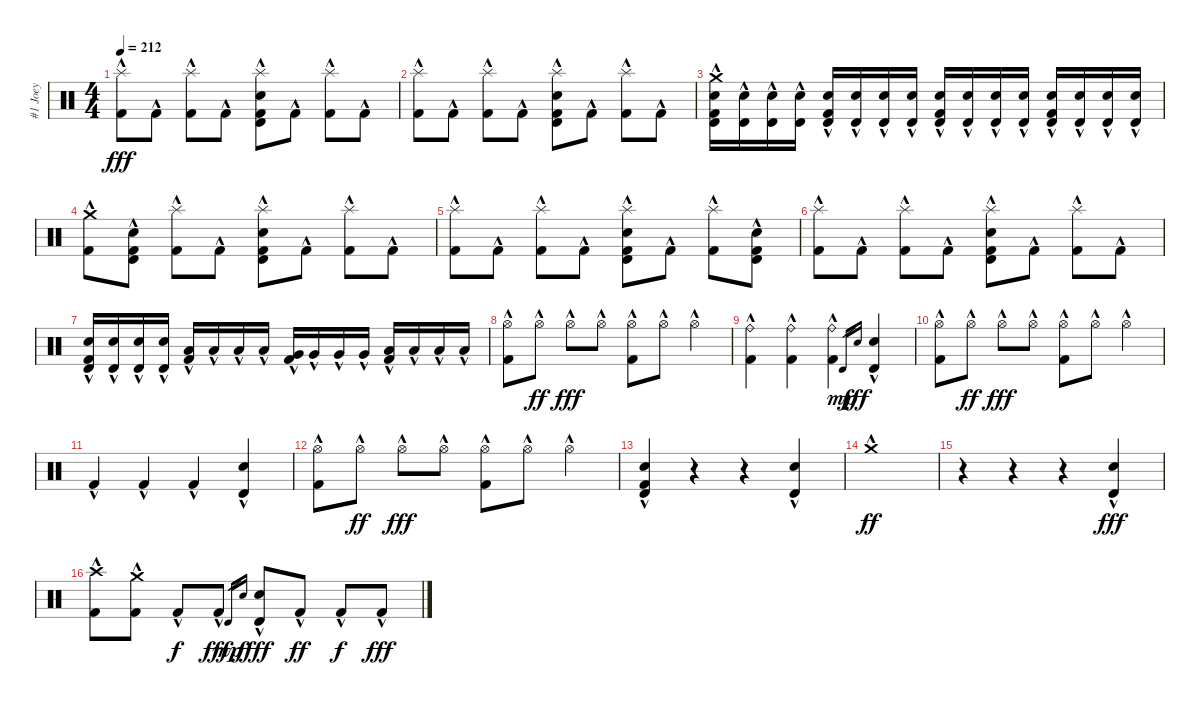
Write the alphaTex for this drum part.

\track ("#1 Joey" "#1 Joey") {instrument percussion}
\staff {score}
\articulation defaults
\ts (4 4)
\tempo 212
\clef neutral
\ks c
("Splash (hit)"{hac} "Kick (hit) 2"{hac}).8{dy fff} "Kick (hit) 2"{hac}.8 ("Splash (hit)"{hac} "Kick (hit) 2"{hac}).8 "Kick (hit) 2"{hac}.8 ("Splash (hit)"{hac} "Timbale high (hit)"{hac} "Electric Snare (hit)"{hac} "Kick (hit) 2"{hac}).8 "Kick (hit) 2"{hac}.8 ("Splash (hit)"{hac} "Kick (hit) 2"{hac}).8 "Kick (hit) 2"{hac}.8 |
("Splash (hit)"{hac} "Kick (hit) 2"{hac}).8 "Kick (hit) 2"{hac}.8 ("Splash (hit)"{hac} "Kick (hit) 2"{hac}).8 "Kick (hit) 2"{hac}.8 ("Splash (hit)"{hac} "Timbale high (hit)"{hac} "Electric Snare (hit)"{hac} "Kick (hit) 2"{hac}).8 "Kick (hit) 2"{hac}.8 ("Splash (hit)"{hac} "Kick (hit) 2"{hac}).8 "Kick (hit) 2"{hac}.8 |
("Crash medium (hit)"{hac} "Timbale high (hit)"{hac} "Electric Snare (hit)"{hac} "Kick (hit) 2"{hac}).16 ("Timbale high (hit)"{hac} "Electric Snare (hit)"{hac}).16 ("Timbale high (hit)"{hac} "Electric Snare (hit)"{hac}).16 ("Timbale high (hit)"{hac} "Electric Snare (hit)"{hac}).16 ("Timbale high (hit)"{hac} "Electric Snare (hit)"{hac} "Kick (hit) 2"{hac}).16 ("Timbale high (hit)"{hac} "Electric Snare (hit)"{hac}).16 ("Timbale high (hit)"{hac} "Electric Snare (hit)"{hac}).16 ("Timbale high (hit)"{hac} "Electric Snare (hit)"{hac}).16 ("Timbale high (hit)"{hac} "Electric Snare (hit)"{hac} "Kick (hit) 2"{hac}).16 ("Timbale high (hit)"{hac} "Electric Snare (hit)"{hac}).16 ("Timbale high (hit)"{hac} "Electric Snare (hit)"{hac}).16 ("Timbale high (hit)"{hac} "Electric Snare (hit)"{hac}).16 ("Timbale high (hit)"{hac} "Electric Snare (hit)"{hac} "Kick (hit) 2"{hac}).16 ("Timbale high (hit)"{hac} "Electric Snare (hit)"{hac}).16 ("Timbale high (hit)"{hac} "Electric Snare (hit)"{hac}).16 ("Timbale high (hit)"{hac} "Electric Snare (hit)"{hac}).16 |
("Crash medium (hit)"{hac} "Kick (hit) 2"{hac}).8 ("Timbale high (hit)"{hac} "Electric Snare (hit)"{hac} "Kick (hit) 2"{hac}).8 ("Splash (hit)"{hac} "Kick (hit) 2"{hac}).8 "Kick (hit) 2"{hac}.8 ("Splash (hit)"{hac} "Timbale high (hit)"{hac} "Electric Snare (hit)"{hac} "Kick (hit) 2"{hac}).8 "Kick (hit) 2"{hac}.8 ("Splash (hit)"{hac} "Kick (hit) 2"{hac}).8 "Kick (hit) 2"{hac}.8 |
("Splash (hit)"{hac} "Kick (hit) 2"{hac}).8 "Kick (hit) 2"{hac}.8 ("Splash (hit)"{hac} "Kick (hit) 2"{hac}).8 "Kick (hit) 2"{hac}.8 ("Splash (hit)"{hac} "Timbale high (hit)"{hac} "Electric Snare (hit)"{hac} "Kick (hit) 2"{hac}).8 "Kick (hit) 2"{hac}.8 ("Splash (hit)"{hac} "Kick (hit) 2"{hac}).8 ("Timbale high (hit)"{hac} "Electric Snare (hit)"{hac} "Kick (hit) 2"{hac}).8 |
("Splash (hit)"{hac} "Kick (hit) 2"{hac}).8 "Kick (hit) 2"{hac}.8 ("Splash (hit)"{hac} "Kick (hit) 2"{hac}).8 "Kick (hit) 2"{hac}.8 ("Splash (hit)"{hac} "Timbale high (hit)"{hac} "Electric Snare (hit)"{hac} "Kick (hit) 2"{hac}).8 "Kick (hit) 2"{hac}.8 ("Splash (hit)"{hac} "Kick (hit) 2"{hac}).8 "Kick (hit) 2"{hac}.8 |
("Timbale high (hit)"{hac} "Electric Snare (hit)"{hac} "Kick (hit) 2"{hac}).16 ("Timbale high (hit)"{hac} "Electric Snare (hit)"{hac}).16 ("Timbale high (hit)"{hac} "Electric Snare (hit)"{hac}).16 ("Timbale high (hit)"{hac} "Electric Snare (hit)"{hac}).16 ("Low Tom (hit)"{hac} "Kick (hit) 2"{hac}).16 "Low Tom (hit)"{hac}.16 "Low Tom (hit)"{hac}.16 "Low Tom (hit)"{hac}.16 ("Very Low Tom (hit)"{hac} "Kick (hit) 2"{hac}).16 "Very Low Tom (hit)"{hac}.16 "Very Low Tom (hit)"{hac}.16 "Very Low Tom (hit)"{hac}.16 ("Low Floor Tom (hit)"{hac} "Kick (hit) 2"{hac}).16 "Low Floor Tom (hit)"{hac}.16 "Low Floor Tom (hit)"{hac}.16 "Low Floor Tom (hit)"{hac}.16 |
("Hi-Hat (open)"{hac} "Kick (hit) 2"{hac}).8 "Hi-Hat (open)"{hac}.8{dy ff} "Hi-Hat (open)"{hac}.8{dy fff} "Hi-Hat (open)"{hac}.8 ("Hi-Hat (open)"{hac} "Kick (hit) 2"{hac}).8 "Hi-Hat (open)"{hac}.8 "Hi-Hat (open)"{hac}.4 |
("Ride (bell)"{hac} "Kick (hit) 2"{hac}).4 ("Ride (bell)"{hac} "Kick (hit) 2"{hac}).4 ("Ride (bell)"{hac} "Kick (hit) 2"{hac}).4 "Timbale high (hit)".16{gr dy mp} "Electric Snare (hit)".16{gr dy fff} ("Timbale high (hit)"{hac} "Electric Snare (hit)"{hac}).4 |
("Hi-Hat (open)"{hac} "Kick (hit) 2"{hac}).8 "Hi-Hat (open)"{hac}.8{dy ff} "Hi-Hat (open)"{hac}.8{dy fff} "Hi-Hat (open)"{hac}.8 ("Hi-Hat (open)"{hac} "Kick (hit) 2"{hac}).8 "Hi-Hat (open)"{hac}.8 "Hi-Hat (open)"{hac}.4 |
"Kick (hit) 2"{hac}.4 "Kick (hit) 2"{hac}.4 "Kick (hit) 2"{hac}.4 ("Timbale high (hit)"{hac} "Electric Snare (hit)"{hac}).4 |
("Hi-Hat (open)"{hac} "Kick (hit) 2"{hac}).8 "Hi-Hat (open)"{hac}.8{dy ff} "Hi-Hat (open)"{hac}.8{dy fff} "Hi-Hat (open)"{hac}.8 ("Hi-Hat (open)"{hac} "Kick (hit) 2"{hac}).8 "Hi-Hat (open)"{hac}.8 "Hi-Hat (open)"{hac}.4 |
("Timbale high (hit)"{hac} "Electric Snare (hit)"{hac} "Kick (hit) 2"{hac}).4 r.4 r.4 ("Timbale high (hit)"{hac} "Electric Snare (hit)"{hac}).4 |
"Crash medium (hit)"{hac}.1{dy ff} |
r.4 r.4 r.4 ("Timbale high (hit)"{hac} "Electric Snare (hit)"{hac}).4{dy fff} |
("Crash high (hit)"{hac} "Kick (hit) 2"{hac}).8 ("Crash medium (hit)"{hac} "Kick (hit) 2"{hac}).8 "Kick (hit) 2"{hac}.8{dy f} "Kick (hit) 2"{hac}.8{dy fff} "Timbale high (hit)".16{gr dy mp} "Electric Snare (hit)".16{gr dy f} ("Timbale high (hit)"{hac} "Electric Snare (hit)"{hac}).8{dy fff} "Kick (hit) 2"{hac}.8{dy ff} "Kick (hit) 2"{hac}.8{dy f} "Kick (hit) 2"{hac}.8{dy fff}
